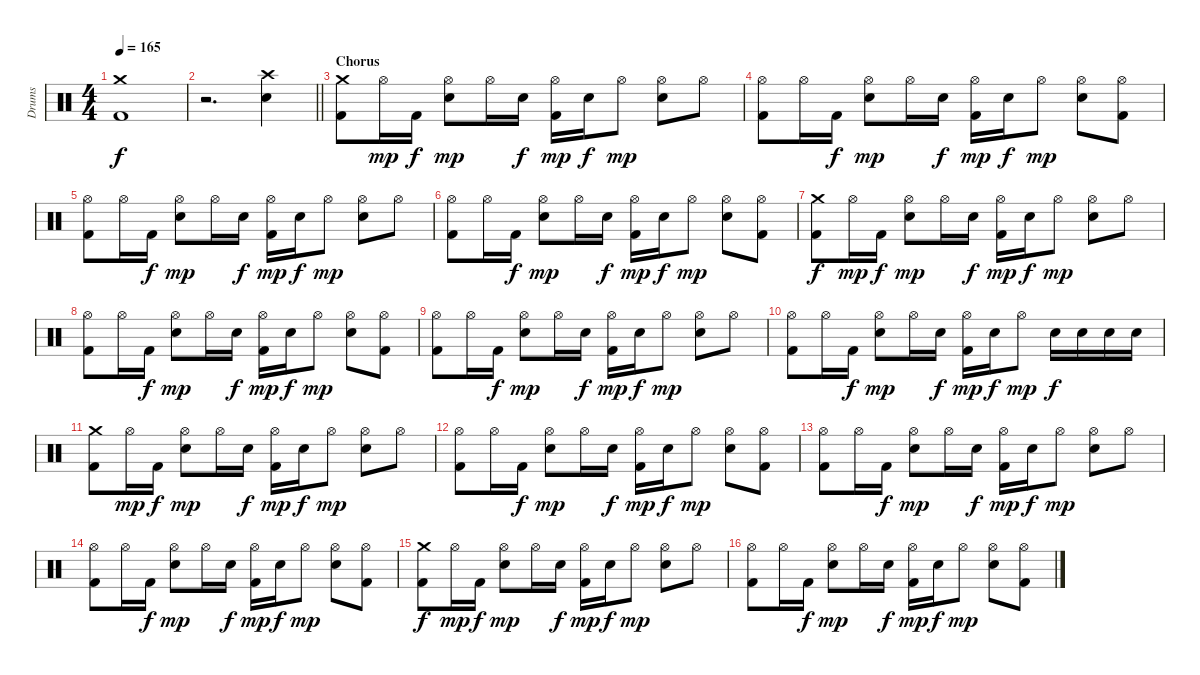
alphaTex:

\track ("Drums" "Drums") {instrument percussion}
\staff {score}
\articulation defaults
\ts (4 4)
\tempo 165
\clef neutral
\ks c
("Crash medium (hit)" "Kick (hit) 2").1{dy f} |
\barLineRight lightlight
r.2{d} ("Crash high (hit)" "Snare (hit) 2").4 |
\section ("" "Chorus")
("Crash medium (hit)" "Kick (hit) 2").8 "Hi-Hat (open)".16{dy mp} "Kick (hit) 2".16{dy f} ("Hi-Hat (open)" "Snare (hit) 2").8{dy mp} "Hi-Hat (open)".16 "Snare (hit) 2".16{dy f} ("Hi-Hat (open)" "Kick (hit) 2").16{dy mp} "Snare (hit) 2".16{dy f} "Hi-Hat (open)".8{dy mp} ("Hi-Hat (open)" "Snare (hit) 2").8 "Hi-Hat (open)".8 |
("Hi-Hat (open)" "Kick (hit) 2").8 "Hi-Hat (open)".16 "Kick (hit) 2".16{dy f} ("Hi-Hat (open)" "Snare (hit) 2").8{dy mp} "Hi-Hat (open)".16 "Snare (hit) 2".16{dy f} ("Hi-Hat (open)" "Kick (hit) 2").16{dy mp} "Snare (hit) 2".16{dy f} "Hi-Hat (open)".8{dy mp} ("Hi-Hat (open)" "Snare (hit) 2").8 ("Hi-Hat (open)" "Kick (hit) 2").8 |
("Hi-Hat (open)" "Kick (hit) 2").8 "Hi-Hat (open)".16 "Kick (hit) 2".16{dy f} ("Hi-Hat (open)" "Snare (hit) 2").8{dy mp} "Hi-Hat (open)".16 "Snare (hit) 2".16{dy f} ("Hi-Hat (open)" "Kick (hit) 2").16{dy mp} "Snare (hit) 2".16{dy f} "Hi-Hat (open)".8{dy mp} ("Hi-Hat (open)" "Snare (hit) 2").8 "Hi-Hat (open)".8 |
("Hi-Hat (open)" "Kick (hit) 2").8 "Hi-Hat (open)".16 "Kick (hit) 2".16{dy f} ("Hi-Hat (open)" "Snare (hit) 2").8{dy mp} "Hi-Hat (open)".16 "Snare (hit) 2".16{dy f} ("Hi-Hat (open)" "Kick (hit) 2").16{dy mp} "Snare (hit) 2".16{dy f} "Hi-Hat (open)".8{dy mp} ("Hi-Hat (open)" "Snare (hit) 2").8 ("Hi-Hat (open)" "Kick (hit) 2").8 |
("Crash medium (hit)" "Kick (hit) 2").8{dy f} "Hi-Hat (open)".16{dy mp} "Kick (hit) 2".16{dy f} ("Hi-Hat (open)" "Snare (hit) 2").8{dy mp} "Hi-Hat (open)".16 "Snare (hit) 2".16{dy f} ("Hi-Hat (open)" "Kick (hit) 2").16{dy mp} "Snare (hit) 2".16{dy f} "Hi-Hat (open)".8{dy mp} ("Hi-Hat (open)" "Snare (hit) 2").8 "Hi-Hat (open)".8 |
("Hi-Hat (open)" "Kick (hit) 2").8 "Hi-Hat (open)".16 "Kick (hit) 2".16{dy f} ("Hi-Hat (open)" "Snare (hit) 2").8{dy mp} "Hi-Hat (open)".16 "Snare (hit) 2".16{dy f} ("Hi-Hat (open)" "Kick (hit) 2").16{dy mp} "Snare (hit) 2".16{dy f} "Hi-Hat (open)".8{dy mp} ("Hi-Hat (open)" "Snare (hit) 2").8 ("Hi-Hat (open)" "Kick (hit) 2").8 |
("Hi-Hat (open)" "Kick (hit) 2").8 "Hi-Hat (open)".16 "Kick (hit) 2".16{dy f} ("Hi-Hat (open)" "Snare (hit) 2").8{dy mp} "Hi-Hat (open)".16 "Snare (hit) 2".16{dy f} ("Hi-Hat (open)" "Kick (hit) 2").16{dy mp} "Snare (hit) 2".16{dy f} "Hi-Hat (open)".8{dy mp} ("Hi-Hat (open)" "Snare (hit) 2").8 "Hi-Hat (open)".8 |
("Hi-Hat (open)" "Kick (hit) 2").8 "Hi-Hat (open)".16 "Kick (hit) 2".16{dy f} ("Hi-Hat (open)" "Snare (hit) 2").8{dy mp} "Hi-Hat (open)".16 "Snare (hit) 2".16{dy f} ("Hi-Hat (open)" "Kick (hit) 2").16{dy mp} "Snare (hit) 2".16{dy f} "Hi-Hat (open)".8{dy mp} "Snare (hit) 2".16{dy f} "Snare (hit) 2".16 "Snare (hit) 2".16 "Snare (hit) 2".16 |
("Crash medium (hit)" "Kick (hit) 2").8 "Hi-Hat (open)".16{dy mp} "Kick (hit) 2".16{dy f} ("Hi-Hat (open)" "Snare (hit) 2").8{dy mp} "Hi-Hat (open)".16 "Snare (hit) 2".16{dy f} ("Hi-Hat (open)" "Kick (hit) 2").16{dy mp} "Snare (hit) 2".16{dy f} "Hi-Hat (open)".8{dy mp} ("Hi-Hat (open)" "Snare (hit) 2").8 "Hi-Hat (open)".8 |
("Hi-Hat (open)" "Kick (hit) 2").8 "Hi-Hat (open)".16 "Kick (hit) 2".16{dy f} ("Hi-Hat (open)" "Snare (hit) 2").8{dy mp} "Hi-Hat (open)".16 "Snare (hit) 2".16{dy f} ("Hi-Hat (open)" "Kick (hit) 2").16{dy mp} "Snare (hit) 2".16{dy f} "Hi-Hat (open)".8{dy mp} ("Hi-Hat (open)" "Snare (hit) 2").8 ("Hi-Hat (open)" "Kick (hit) 2").8 |
("Hi-Hat (open)" "Kick (hit) 2").8 "Hi-Hat (open)".16 "Kick (hit) 2".16{dy f} ("Hi-Hat (open)" "Snare (hit) 2").8{dy mp} "Hi-Hat (open)".16 "Snare (hit) 2".16{dy f} ("Hi-Hat (open)" "Kick (hit) 2").16{dy mp} "Snare (hit) 2".16{dy f} "Hi-Hat (open)".8{dy mp} ("Hi-Hat (open)" "Snare (hit) 2").8 "Hi-Hat (open)".8 |
("Hi-Hat (open)" "Kick (hit) 2").8 "Hi-Hat (open)".16 "Kick (hit) 2".16{dy f} ("Hi-Hat (open)" "Snare (hit) 2").8{dy mp} "Hi-Hat (open)".16 "Snare (hit) 2".16{dy f} ("Hi-Hat (open)" "Kick (hit) 2").16{dy mp} "Snare (hit) 2".16{dy f} "Hi-Hat (open)".8{dy mp} ("Hi-Hat (open)" "Snare (hit) 2").8 ("Hi-Hat (open)" "Kick (hit) 2").8 |
("Crash medium (hit)" "Kick (hit) 2").8{dy f} "Hi-Hat (open)".16{dy mp} "Kick (hit) 2".16{dy f} ("Hi-Hat (open)" "Snare (hit) 2").8{dy mp} "Hi-Hat (open)".16 "Snare (hit) 2".16{dy f} ("Hi-Hat (open)" "Kick (hit) 2").16{dy mp} "Snare (hit) 2".16{dy f} "Hi-Hat (open)".8{dy mp} ("Hi-Hat (open)" "Snare (hit) 2").8 "Hi-Hat (open)".8 |
("Hi-Hat (open)" "Kick (hit) 2").8 "Hi-Hat (open)".16 "Kick (hit) 2".16{dy f} ("Hi-Hat (open)" "Snare (hit) 2").8{dy mp} "Hi-Hat (open)".16 "Snare (hit) 2".16{dy f} ("Hi-Hat (open)" "Kick (hit) 2").16{dy mp} "Snare (hit) 2".16{dy f} "Hi-Hat (open)".8{dy mp} ("Hi-Hat (open)" "Snare (hit) 2").8 ("Hi-Hat (open)" "Kick (hit) 2").8
